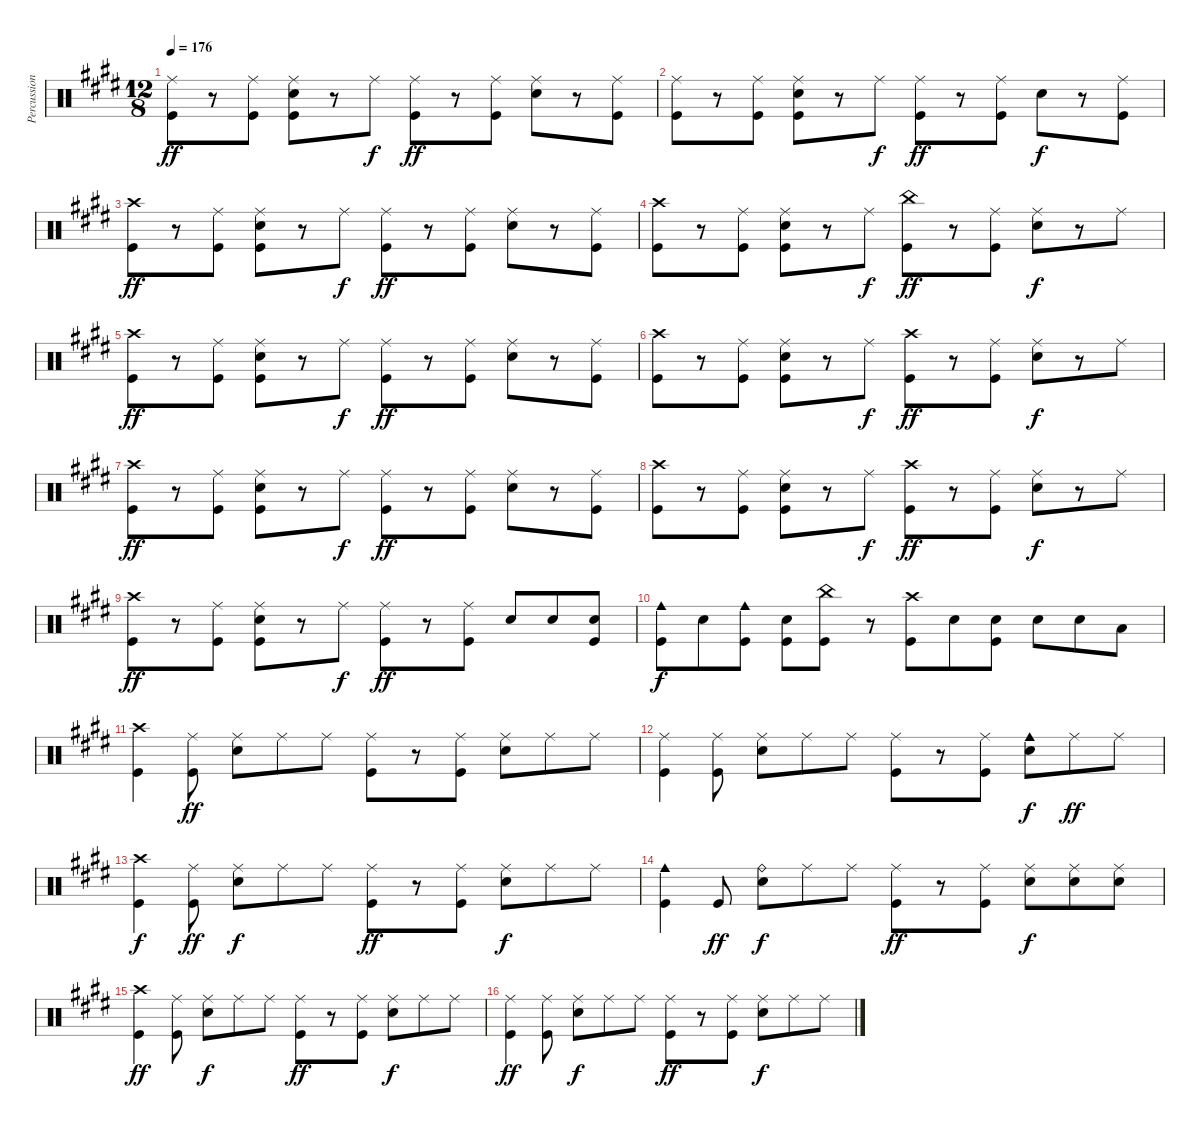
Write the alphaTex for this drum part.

\track ("Percussion" "Percussion") {instrument percussion}
\staff {score}
\articulation defaults
\ts (12 8)
\tempo 176
\clef neutral
\ks e
("Ride (middle)" "Kick (hit)").8{dy ff} r.8 ("Ride (middle)" "Kick (hit)").8 ("Ride (middle)" "Electric Snare (hit)" "Kick (hit)").8 r.8 "Ride (middle)".8{dy f} ("Ride (middle)" "Kick (hit)").8{dy ff} r.8 ("Ride (middle)" "Kick (hit)").8 ("Ride (middle)" "Electric Snare (hit)").8 r.8 ("Ride (middle)" "Kick (hit)").8 |
("Ride (middle)" "Kick (hit)").8 r.8 ("Ride (middle)" "Kick (hit)").8 ("Ride (middle)" "Electric Snare (hit)" "Kick (hit)").8 r.8 "Ride (middle)".8{dy f} ("Ride (middle)" "Kick (hit)").8{dy ff} r.8 ("Ride (middle)" "Kick (hit)").8 "Electric Snare (hit)".8{dy f} r.8 ("Ride (middle)" "Kick (hit)").8 |
("Crash high (hit)" "Kick (hit)").8{dy ff} r.8 ("Ride (middle)" "Kick (hit)").8 ("Ride (middle)" "Electric Snare (hit)" "Kick (hit)").8 r.8 "Ride (middle)".8{dy f} ("Ride (middle)" "Kick (hit)").8{dy ff} r.8 ("Ride (middle)" "Kick (hit)").8 ("Ride (middle)" "Electric Snare (hit)").8 r.8 ("Ride (middle)" "Kick (hit)").8 |
("Crash high (hit)" "Kick (hit)").8 r.8 ("Ride (middle)" "Kick (hit)").8 ("Ride (middle)" "Electric Snare (hit)" "Kick (hit)").8 r.8 "Ride (middle)".8{dy f} ("China (hit)" "Kick (hit)").8{dy ff} r.8 ("Ride (middle)" "Kick (hit)").8 ("Ride (middle)" "Electric Snare (hit)").8{dy f} r.8 "Ride (middle)".8 |
("Crash high (hit)" "Kick (hit)").8{dy ff} r.8 ("Ride (middle)" "Kick (hit)").8 ("Ride (middle)" "Electric Snare (hit)" "Kick (hit)").8 r.8 "Ride (middle)".8{dy f} ("Ride (middle)" "Kick (hit)").8{dy ff} r.8 ("Ride (middle)" "Kick (hit)").8 ("Ride (middle)" "Electric Snare (hit)").8 r.8 ("Ride (middle)" "Kick (hit)").8 |
("Crash high (hit)" "Kick (hit)").8 r.8 ("Ride (middle)" "Kick (hit)").8 ("Ride (middle)" "Electric Snare (hit)" "Kick (hit)").8 r.8 "Ride (middle)".8{dy f} ("Crash high (hit)" "Kick (hit)").8{dy ff} r.8 ("Ride (middle)" "Kick (hit)").8 ("Ride (middle)" "Electric Snare (hit)").8{dy f} r.8 "Ride (middle)".8 |
("Crash high (hit)" "Kick (hit)").8{dy ff} r.8 ("Ride (middle)" "Kick (hit)").8 ("Ride (middle)" "Electric Snare (hit)" "Kick (hit)").8 r.8 "Ride (middle)".8{dy f} ("Ride (middle)" "Kick (hit)").8{dy ff} r.8 ("Ride (middle)" "Kick (hit)").8 ("Ride (middle)" "Electric Snare (hit)").8 r.8 ("Ride (middle)" "Kick (hit)").8 |
("Crash high (hit)" "Kick (hit)").8 r.8 ("Ride (middle)" "Kick (hit)").8 ("Ride (middle)" "Electric Snare (hit)" "Kick (hit)").8 r.8 "Ride (middle)".8{dy f} ("Crash high (hit)" "Kick (hit)").8{dy ff} r.8 ("Ride (middle)" "Kick (hit)").8 ("Ride (middle)" "Electric Snare (hit)").8{dy f} r.8 "Ride (middle)".8 |
("Crash high (hit)" "Kick (hit)").8{dy ff} r.8 ("Ride (middle)" "Kick (hit)").8 ("Ride (middle)" "Electric Snare (hit)" "Kick (hit)").8 r.8 "Ride (middle)".8{dy f} ("Ride (middle)" "Kick (hit)").8{dy ff} r.8 ("Ride (middle)" "Kick (hit)").8 "Electric Snare (hit)".8 "Electric Snare (hit)".8 ("Electric Snare (hit)" "Kick (hit)").8 |
("Cowbell medium (hit)" "Kick (hit)").8{dy f} "Electric Snare (hit)".8 ("Cowbell medium (hit)" "Kick (hit)").8 ("Electric Snare (hit)" "Kick (hit)").8 ("China (hit)" "Kick (hit)").8 r.8 ("Crash high (hit)" "Kick (hit)").8 "Electric Snare (hit)".8 ("Electric Snare (hit)" "Kick (hit)").8 "Electric Snare (hit)".8 "Electric Snare (hit)".8 "Low Tom (hit)".8 |
("Crash high (hit)" "Kick (hit)").4 ("Ride (middle)" "Kick (hit)").8{dy ff} ("Ride (middle)" "Electric Snare (hit)").8 "Ride (middle)".8 "Ride (middle)".8 ("Ride (middle)" "Kick (hit)").8 r.8 ("Ride (middle)" "Kick (hit)").8 ("Ride (middle)" "Electric Snare (hit)").8 "Ride (middle)".8 "Ride (middle)".8 |
("Ride (middle)" "Kick (hit)").4 ("Ride (middle)" "Kick (hit)").8 ("Ride (middle)" "Electric Snare (hit)").8 "Ride (middle)".8 "Ride (middle)".8 ("Ride (middle)" "Kick (hit)").8 r.8 ("Ride (middle)" "Kick (hit)").8 ("Cowbell medium (hit)" "Electric Snare (hit)").8{dy f} "Ride (middle)".8{dy ff} "Ride (middle)".8 |
("Crash high (hit)" "Kick (hit)").4{dy f} ("Ride (middle)" "Kick (hit)").8{dy ff} ("Ride (middle)" "Electric Snare (hit)").8{dy f} "Ride (middle)".8 "Ride (middle)".8 ("Ride (middle)" "Kick (hit)").8{dy ff} r.8 ("Ride (middle)" "Kick (hit)").8 ("Ride (middle)" "Electric Snare (hit)").8{dy f} "Ride (middle)".8 "Ride (middle)".8 |
("Cowbell medium (hit)" "Kick (hit)").4 "Kick (hit)".8{dy ff} ("Ride (bell)" "Electric Snare (hit)").8{dy f} "Ride (middle)".8 "Ride (middle)".8 ("Ride (middle)" "Kick (hit)").8{dy ff} r.8 ("Ride (middle)" "Kick (hit)").8 ("Ride (middle)" "Electric Snare (hit)").8{dy f} ("Ride (middle)" "Electric Snare (hit)").8 ("Ride (middle)" "Electric Snare (hit)").8 |
("Crash high (hit)" "Kick (hit)").4{dy ff} ("Ride (middle)" "Kick (hit)").8 ("Ride (middle)" "Electric Snare (hit)").8{dy f} "Ride (middle)".8 "Ride (middle)".8 ("Ride (middle)" "Kick (hit)").8{dy ff} r.8 ("Ride (middle)" "Kick (hit)").8 ("Ride (middle)" "Electric Snare (hit)").8{dy f} "Ride (middle)".8 "Ride (middle)".8 |
("Ride (middle)" "Kick (hit)").4{dy ff} ("Ride (middle)" "Kick (hit)").8 ("Ride (middle)" "Electric Snare (hit)").8{dy f} "Ride (middle)".8 "Ride (middle)".8 ("Ride (middle)" "Kick (hit)").8{dy ff} r.8 ("Ride (middle)" "Kick (hit)").8 ("Ride (middle)" "Electric Snare (hit)").8{dy f} "Ride (middle)".8 "Ride (middle)".8
